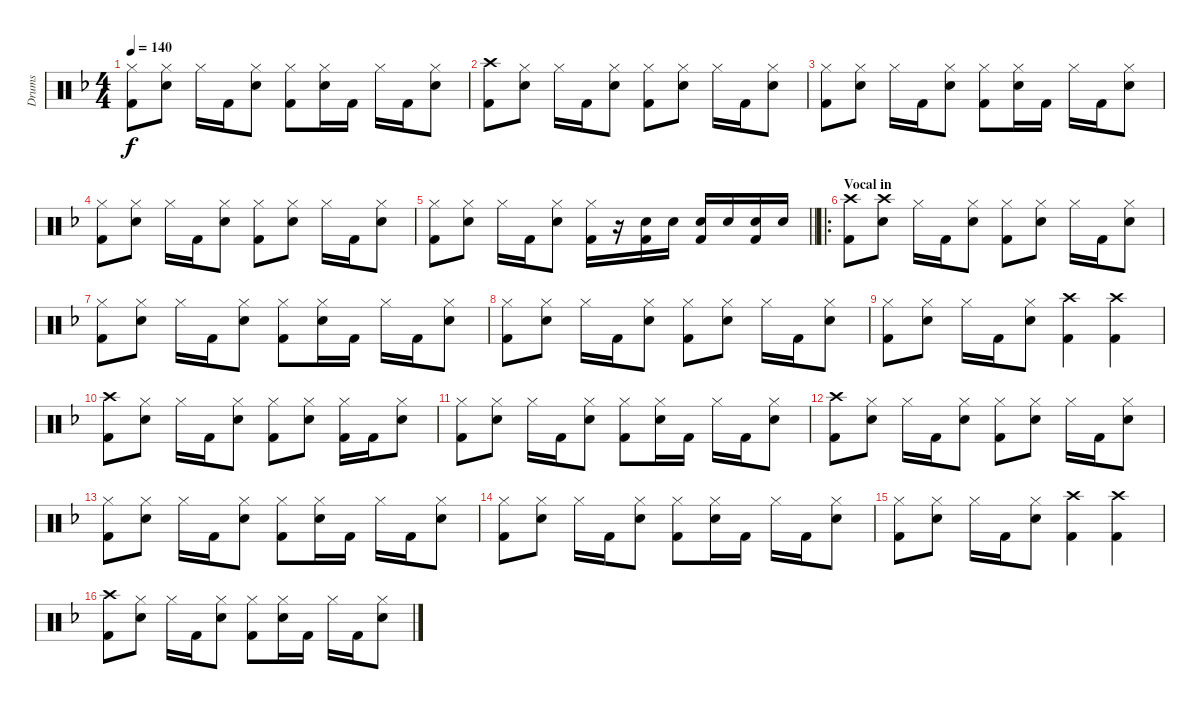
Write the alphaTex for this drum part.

\track ("Drums" "Drums") {instrument percussion}
\staff {score}
\articulation defaults
\ts (4 4)
\tempo 140
\clef neutral
\ks dminor
("Hi-Hat (closed)" "Kick (hit) 2").8{dy f} ("Hi-Hat (closed)" "Snare (hit) 2").8 "Hi-Hat (closed)".16 "Kick (hit) 2".16 ("Hi-Hat (closed)" "Snare (hit) 2").8 ("Hi-Hat (closed)" "Kick (hit) 2").8 ("Hi-Hat (closed)" "Snare (hit) 2").16 "Kick (hit) 2".16 "Hi-Hat (closed)".16 "Kick (hit) 2".16 ("Hi-Hat (closed)" "Snare (hit) 2").8 |
("Crash high (hit)" "Kick (hit) 2").8 ("Hi-Hat (closed)" "Snare (hit) 2").8 "Hi-Hat (closed)".16 "Kick (hit) 2".16 ("Hi-Hat (closed)" "Snare (hit) 2").8 ("Hi-Hat (closed)" "Kick (hit) 2").8 ("Hi-Hat (closed)" "Snare (hit) 2").8 "Hi-Hat (closed)".16 "Kick (hit) 2".16 ("Hi-Hat (closed)" "Snare (hit) 2").8 |
("Hi-Hat (closed)" "Kick (hit) 2").8 ("Hi-Hat (closed)" "Snare (hit) 2").8 "Hi-Hat (closed)".16 "Kick (hit) 2".16 ("Hi-Hat (closed)" "Snare (hit) 2").8 ("Hi-Hat (closed)" "Kick (hit) 2").8 ("Hi-Hat (closed)" "Snare (hit) 2").16 "Kick (hit) 2".16 "Hi-Hat (closed)".16 "Kick (hit) 2".16 ("Hi-Hat (closed)" "Snare (hit) 2").8 |
("Hi-Hat (closed)" "Kick (hit) 2").8 ("Hi-Hat (closed)" "Snare (hit) 2").8 "Hi-Hat (closed)".16 "Kick (hit) 2".16 ("Hi-Hat (closed)" "Snare (hit) 2").8 ("Hi-Hat (closed)" "Kick (hit) 2").8 ("Hi-Hat (closed)" "Snare (hit) 2").8 "Hi-Hat (closed)".16 "Kick (hit) 2".16 ("Hi-Hat (closed)" "Snare (hit) 2").8 |
\barLineRight lightlight
("Hi-Hat (closed)" "Kick (hit) 2").8 ("Hi-Hat (closed)" "Snare (hit) 2").8 "Hi-Hat (closed)".16 "Kick (hit) 2".16 ("Hi-Hat (closed)" "Snare (hit) 2").8 ("Hi-Hat (closed)" "Kick (hit) 2").16 r.16 ("Snare (hit) 2" "Kick (hit) 2").16 "Snare (hit) 2".16 ("Snare (hit) 2" "Kick (hit) 2").16 "Snare (hit) 2".16 ("Snare (hit) 2" "Kick (hit) 2").16 "Snare (hit) 2".16 |
\ro
\section ("" "Vocal in")
("Crash high (hit)" "Kick (hit) 2").8 ("Crash high (hit)" "Snare (hit) 2").8 "Hi-Hat (closed)".16 "Kick (hit) 2".16 ("Hi-Hat (closed)" "Snare (hit) 2").8 ("Hi-Hat (closed)" "Kick (hit) 2").8 ("Hi-Hat (closed)" "Snare (hit) 2").8 "Hi-Hat (closed)".16 "Kick (hit) 2".16 ("Hi-Hat (closed)" "Snare (hit) 2").8 |
("Hi-Hat (closed)" "Kick (hit) 2").8 ("Hi-Hat (closed)" "Snare (hit) 2").8 "Hi-Hat (closed)".16 "Kick (hit) 2".16 ("Hi-Hat (closed)" "Snare (hit) 2").8 ("Hi-Hat (closed)" "Kick (hit) 2").8 ("Hi-Hat (closed)" "Snare (hit) 2").16 "Kick (hit) 2".16 "Hi-Hat (closed)".16 "Kick (hit) 2".16 ("Hi-Hat (closed)" "Snare (hit) 2").8 |
("Hi-Hat (closed)" "Kick (hit) 2").8 ("Hi-Hat (closed)" "Snare (hit) 2").8 "Hi-Hat (closed)".16 "Kick (hit) 2".16 ("Hi-Hat (closed)" "Snare (hit) 2").8 ("Hi-Hat (closed)" "Kick (hit) 2").8 ("Hi-Hat (closed)" "Snare (hit) 2").8 "Hi-Hat (closed)".16 "Kick (hit) 2".16 ("Hi-Hat (closed)" "Snare (hit) 2").8 |
("Hi-Hat (closed)" "Kick (hit) 2").8 ("Hi-Hat (closed)" "Snare (hit) 2").8 "Hi-Hat (closed)".16 "Kick (hit) 2".16 ("Hi-Hat (closed)" "Snare (hit) 2").8 ("Crash high (hit)" "Kick (hit) 2").4 ("Crash high (hit)" "Kick (hit) 2").4 |
("Crash high (hit)" "Kick (hit) 2").8 ("Hi-Hat (closed)" "Snare (hit) 2").8 "Hi-Hat (closed)".16 "Kick (hit) 2".16 ("Hi-Hat (closed)" "Snare (hit) 2").8 ("Hi-Hat (closed)" "Kick (hit) 2").8 ("Hi-Hat (closed)" "Snare (hit) 2").8 ("Hi-Hat (closed)" "Kick (hit) 2").16 "Kick (hit) 2".16 ("Hi-Hat (closed)" "Snare (hit) 2").8 |
("Hi-Hat (closed)" "Kick (hit) 2").8 ("Hi-Hat (closed)" "Snare (hit) 2").8 "Hi-Hat (closed)".16 "Kick (hit) 2".16 ("Hi-Hat (closed)" "Snare (hit) 2").8 ("Hi-Hat (closed)" "Kick (hit) 2").8 ("Hi-Hat (closed)" "Snare (hit) 2").16 "Kick (hit) 2".16 "Hi-Hat (closed)".16 "Kick (hit) 2".16 ("Hi-Hat (closed)" "Snare (hit) 2").8 |
("Crash high (hit)" "Kick (hit) 2").8 ("Hi-Hat (closed)" "Snare (hit) 2").8 "Hi-Hat (closed)".16 "Kick (hit) 2".16 ("Hi-Hat (closed)" "Snare (hit) 2").8 ("Hi-Hat (closed)" "Kick (hit) 2").8 ("Hi-Hat (closed)" "Snare (hit) 2").8 "Hi-Hat (closed)".16 "Kick (hit) 2".16 ("Hi-Hat (closed)" "Snare (hit) 2").8 |
("Hi-Hat (closed)" "Kick (hit) 2").8 ("Hi-Hat (closed)" "Snare (hit) 2").8 "Hi-Hat (closed)".16 "Kick (hit) 2".16 ("Hi-Hat (closed)" "Snare (hit) 2").8 ("Hi-Hat (closed)" "Kick (hit) 2").8 ("Hi-Hat (closed)" "Snare (hit) 2").16 "Kick (hit) 2".16 "Hi-Hat (closed)".16 "Kick (hit) 2".16 ("Hi-Hat (closed)" "Snare (hit) 2").8 |
("Hi-Hat (closed)" "Kick (hit) 2").8 ("Hi-Hat (closed)" "Snare (hit) 2").8 "Hi-Hat (closed)".16 "Kick (hit) 2".16 ("Hi-Hat (closed)" "Snare (hit) 2").8 ("Hi-Hat (closed)" "Kick (hit) 2").8 ("Hi-Hat (closed)" "Snare (hit) 2").16 "Kick (hit) 2".16 "Hi-Hat (closed)".16 "Kick (hit) 2".16 ("Hi-Hat (closed)" "Snare (hit) 2").8 |
("Hi-Hat (closed)" "Kick (hit) 2").8 ("Hi-Hat (closed)" "Snare (hit) 2").8 "Hi-Hat (closed)".16 "Kick (hit) 2".16 ("Hi-Hat (closed)" "Snare (hit) 2").8 ("Crash high (hit)" "Kick (hit) 2").4 ("Crash high (hit)" "Kick (hit) 2").4 |
("Crash high (hit)" "Kick (hit) 2").8 ("Hi-Hat (closed)" "Snare (hit) 2").8 "Hi-Hat (closed)".16 "Kick (hit) 2".16 ("Hi-Hat (closed)" "Snare (hit) 2").8 ("Hi-Hat (closed)" "Kick (hit) 2").8 ("Hi-Hat (closed)" "Snare (hit) 2").16 "Kick (hit) 2".16 "Hi-Hat (closed)".16 "Kick (hit) 2".16 ("Hi-Hat (closed)" "Snare (hit) 2").8
